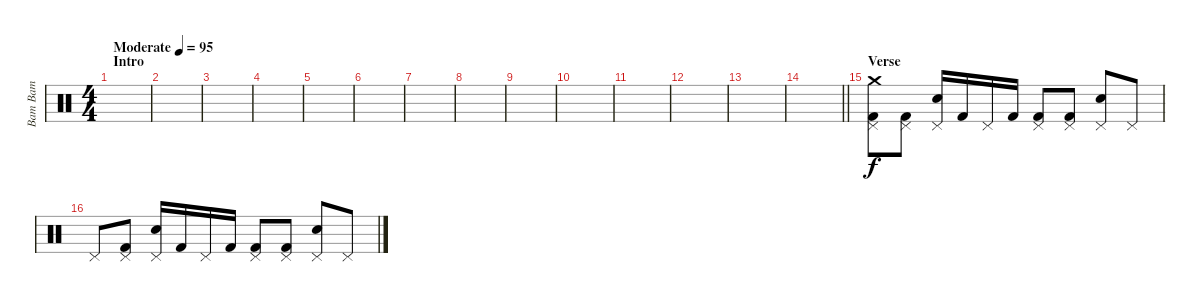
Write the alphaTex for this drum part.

\track ("Bam Bam" "Bam Bam") {instrument percussion}
\staff {score}
\articulation defaults
\ts (4 4)
\section ("" "Intro")
\tempo (95 "Moderate")
\clef neutral
\ks c
|
|
|
|
|
|
|
|
|
|
|
|
|
\barLineRight lightlight
|
\section ("" "Verse")
("Crash medium (hit)" "Pedal Hi-Hat (hit)" "Kick (hit) 2").8 ("Pedal Hi-Hat (hit)" "Kick (hit) 2").8{dy f} ("Pedal Hi-Hat (hit)" "Electric Snare (hit)").16 "Kick (hit) 2".16 "Pedal Hi-Hat (hit)".16 "Kick (hit) 2".16 ("Pedal Hi-Hat (hit)" "Kick (hit) 2").8 ("Pedal Hi-Hat (hit)" "Kick (hit) 2").8 ("Pedal Hi-Hat (hit)" "Electric Snare (hit)").8 "Pedal Hi-Hat (hit)".8 |
"Pedal Hi-Hat (hit)".8 ("Pedal Hi-Hat (hit)" "Kick (hit) 2").8 ("Pedal Hi-Hat (hit)" "Electric Snare (hit)").16 "Kick (hit) 2".16 "Pedal Hi-Hat (hit)".16 "Kick (hit) 2".16 ("Pedal Hi-Hat (hit)" "Kick (hit) 2").8 ("Pedal Hi-Hat (hit)" "Kick (hit) 2").8 ("Pedal Hi-Hat (hit)" "Electric Snare (hit)").8 "Pedal Hi-Hat (hit)".8
